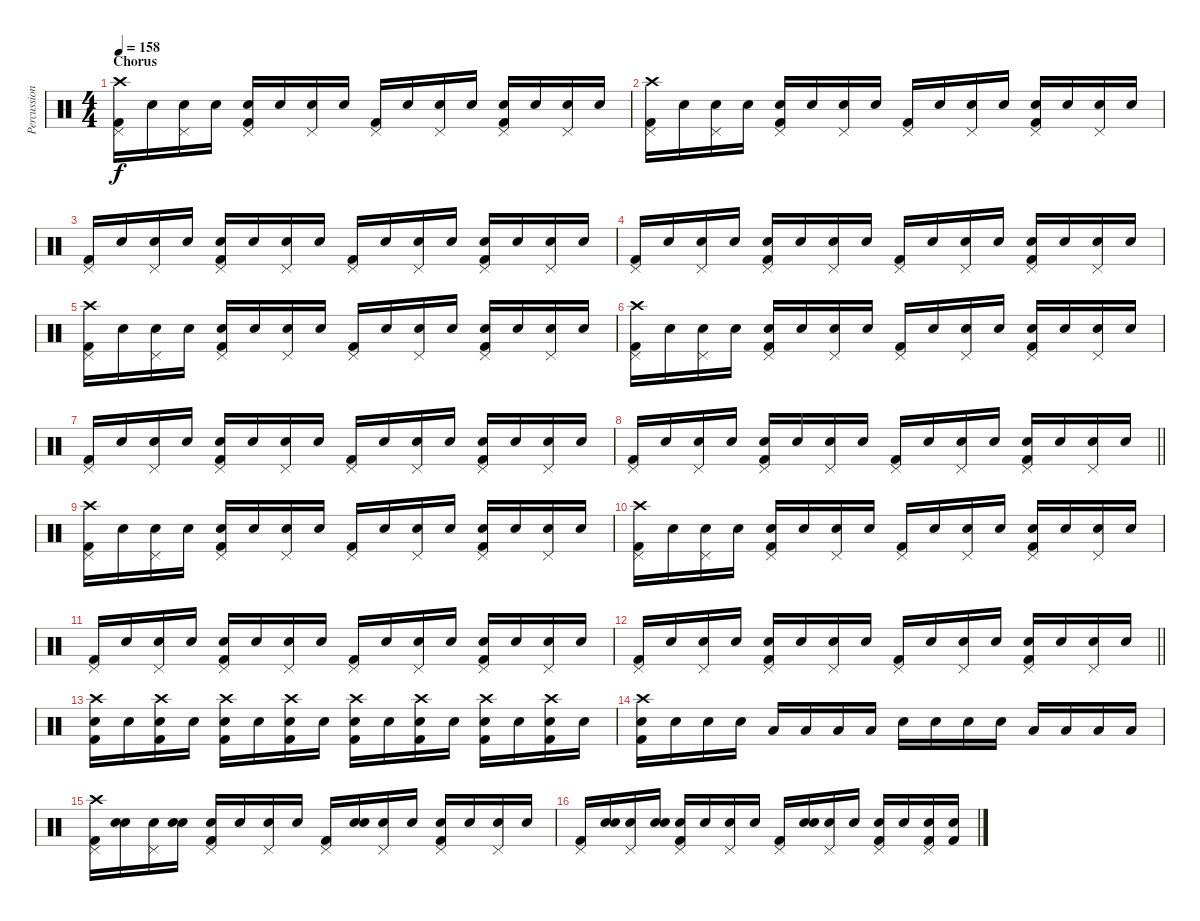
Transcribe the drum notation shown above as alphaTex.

\track ("Percussion" "Percussion") {instrument percussion}
\staff {score}
\articulation defaults
\ts (4 4)
\section ("" "Chorus")
\tempo 158
\clef neutral
\ks c
("Crash high (hit)" "Kick (hit) 2" "Pedal Hi-Hat (hit)").16{dy f} "Snare (hit)".16 ("Snare (hit)" "Pedal Hi-Hat (hit)").16 "Snare (hit)".16 ("Snare (hit) 2" "Kick (hit) 2" "Pedal Hi-Hat (hit)").16 "Snare (hit)".16 ("Snare (hit)" "Pedal Hi-Hat (hit)").16 "Snare (hit)".16 ("Kick (hit) 2" "Pedal Hi-Hat (hit)").16 "Snare (hit)".16 ("Snare (hit)" "Pedal Hi-Hat (hit)").16 "Snare (hit)".16 ("Snare (hit) 2" "Kick (hit) 2" "Pedal Hi-Hat (hit)").16 "Snare (hit)".16 ("Snare (hit)" "Pedal Hi-Hat (hit)").16 "Snare (hit)".16 |
("Crash high (hit)" "Kick (hit) 2" "Pedal Hi-Hat (hit)").16 "Snare (hit)".16 ("Snare (hit)" "Pedal Hi-Hat (hit)").16 "Snare (hit)".16 ("Snare (hit) 2" "Kick (hit) 2" "Pedal Hi-Hat (hit)").16 "Snare (hit)".16 ("Snare (hit)" "Pedal Hi-Hat (hit)").16 "Snare (hit)".16 ("Kick (hit) 2" "Pedal Hi-Hat (hit)").16 "Snare (hit)".16 ("Snare (hit)" "Pedal Hi-Hat (hit)").16 "Snare (hit)".16 ("Snare (hit) 2" "Kick (hit) 2" "Pedal Hi-Hat (hit)").16 "Snare (hit)".16 ("Snare (hit)" "Pedal Hi-Hat (hit)").16 "Snare (hit)".16 |
("Kick (hit) 2" "Pedal Hi-Hat (hit)").16 "Snare (hit)".16 ("Snare (hit)" "Pedal Hi-Hat (hit)").16 "Snare (hit)".16 ("Snare (hit) 2" "Kick (hit) 2" "Pedal Hi-Hat (hit)").16 "Snare (hit)".16 ("Snare (hit)" "Pedal Hi-Hat (hit)").16 "Snare (hit)".16 ("Kick (hit) 2" "Pedal Hi-Hat (hit)").16 "Snare (hit)".16 ("Snare (hit)" "Pedal Hi-Hat (hit)").16 "Snare (hit)".16 ("Snare (hit) 2" "Kick (hit) 2" "Pedal Hi-Hat (hit)").16 "Snare (hit)".16 ("Snare (hit)" "Pedal Hi-Hat (hit)").16 "Snare (hit)".16 |
("Kick (hit) 2" "Pedal Hi-Hat (hit)").16 "Snare (hit)".16 ("Snare (hit)" "Pedal Hi-Hat (hit)").16 "Snare (hit)".16 ("Snare (hit) 2" "Kick (hit) 2" "Pedal Hi-Hat (hit)").16 "Snare (hit)".16 ("Snare (hit)" "Pedal Hi-Hat (hit)").16 "Snare (hit)".16 ("Kick (hit) 2" "Pedal Hi-Hat (hit)").16 "Snare (hit)".16 ("Snare (hit)" "Pedal Hi-Hat (hit)").16 "Snare (hit)".16 ("Snare (hit) 2" "Kick (hit) 2" "Pedal Hi-Hat (hit)").16 "Snare (hit)".16 ("Snare (hit)" "Pedal Hi-Hat (hit)").16 "Snare (hit)".16 |
("Crash high (hit)" "Kick (hit) 2" "Pedal Hi-Hat (hit)").16 "Snare (hit)".16 ("Snare (hit)" "Pedal Hi-Hat (hit)").16 "Snare (hit)".16 ("Snare (hit) 2" "Kick (hit) 2" "Pedal Hi-Hat (hit)").16 "Snare (hit)".16 ("Snare (hit)" "Pedal Hi-Hat (hit)").16 "Snare (hit)".16 ("Kick (hit) 2" "Pedal Hi-Hat (hit)").16 "Snare (hit)".16 ("Snare (hit)" "Pedal Hi-Hat (hit)").16 "Snare (hit)".16 ("Snare (hit) 2" "Kick (hit) 2" "Pedal Hi-Hat (hit)").16 "Snare (hit)".16 ("Snare (hit)" "Pedal Hi-Hat (hit)").16 "Snare (hit)".16 |
("Crash high (hit)" "Kick (hit) 2" "Pedal Hi-Hat (hit)").16 "Snare (hit)".16 ("Snare (hit)" "Pedal Hi-Hat (hit)").16 "Snare (hit)".16 ("Snare (hit) 2" "Kick (hit) 2" "Pedal Hi-Hat (hit)").16 "Snare (hit)".16 ("Snare (hit)" "Pedal Hi-Hat (hit)").16 "Snare (hit)".16 ("Kick (hit) 2" "Pedal Hi-Hat (hit)").16 "Snare (hit)".16 ("Snare (hit)" "Pedal Hi-Hat (hit)").16 "Snare (hit)".16 ("Snare (hit) 2" "Kick (hit) 2" "Pedal Hi-Hat (hit)").16 "Snare (hit)".16 ("Snare (hit)" "Pedal Hi-Hat (hit)").16 "Snare (hit)".16 |
("Kick (hit) 2" "Pedal Hi-Hat (hit)").16 "Snare (hit)".16 ("Snare (hit)" "Pedal Hi-Hat (hit)").16 "Snare (hit)".16 ("Snare (hit) 2" "Kick (hit) 2" "Pedal Hi-Hat (hit)").16 "Snare (hit)".16 ("Snare (hit)" "Pedal Hi-Hat (hit)").16 "Snare (hit)".16 ("Kick (hit) 2" "Pedal Hi-Hat (hit)").16 "Snare (hit)".16 ("Snare (hit)" "Pedal Hi-Hat (hit)").16 "Snare (hit)".16 ("Snare (hit) 2" "Kick (hit) 2" "Pedal Hi-Hat (hit)").16 "Snare (hit)".16 ("Snare (hit)" "Pedal Hi-Hat (hit)").16 "Snare (hit)".16 |
\barLineRight lightlight
("Kick (hit) 2" "Pedal Hi-Hat (hit)").16 "Snare (hit)".16 ("Snare (hit)" "Pedal Hi-Hat (hit)").16 "Snare (hit)".16 ("Snare (hit) 2" "Kick (hit) 2" "Pedal Hi-Hat (hit)").16 "Snare (hit)".16 ("Snare (hit)" "Pedal Hi-Hat (hit)").16 "Snare (hit)".16 ("Kick (hit) 2" "Pedal Hi-Hat (hit)").16 "Snare (hit)".16 ("Snare (hit)" "Pedal Hi-Hat (hit)").16 "Snare (hit)".16 ("Snare (hit) 2" "Kick (hit) 2" "Pedal Hi-Hat (hit)").16 "Snare (hit)".16 ("Snare (hit)" "Pedal Hi-Hat (hit)").16 "Snare (hit)".16 |
("Crash high (hit)" "Kick (hit) 2" "Pedal Hi-Hat (hit)").16 "Snare (hit)".16 ("Snare (hit)" "Pedal Hi-Hat (hit)").16 "Snare (hit)".16 ("Snare (hit) 2" "Kick (hit) 2" "Pedal Hi-Hat (hit)").16 "Snare (hit)".16 ("Snare (hit)" "Pedal Hi-Hat (hit)").16 "Snare (hit)".16 ("Kick (hit) 2" "Pedal Hi-Hat (hit)").16 "Snare (hit)".16 ("Snare (hit)" "Pedal Hi-Hat (hit)").16 "Snare (hit)".16 ("Snare (hit) 2" "Kick (hit) 2" "Pedal Hi-Hat (hit)").16 "Snare (hit)".16 ("Snare (hit)" "Pedal Hi-Hat (hit)").16 "Snare (hit)".16 |
("Crash high (hit)" "Kick (hit) 2" "Pedal Hi-Hat (hit)").16 "Snare (hit)".16 ("Snare (hit)" "Pedal Hi-Hat (hit)").16 "Snare (hit)".16 ("Snare (hit) 2" "Kick (hit) 2" "Pedal Hi-Hat (hit)").16 "Snare (hit)".16 ("Snare (hit)" "Pedal Hi-Hat (hit)").16 "Snare (hit)".16 ("Kick (hit) 2" "Pedal Hi-Hat (hit)").16 "Snare (hit)".16 ("Snare (hit)" "Pedal Hi-Hat (hit)").16 "Snare (hit)".16 ("Snare (hit) 2" "Kick (hit) 2" "Pedal Hi-Hat (hit)").16 "Snare (hit)".16 ("Snare (hit)" "Pedal Hi-Hat (hit)").16 "Snare (hit)".16 |
("Kick (hit) 2" "Pedal Hi-Hat (hit)").16 "Snare (hit)".16 ("Snare (hit)" "Pedal Hi-Hat (hit)").16 "Snare (hit)".16 ("Snare (hit) 2" "Kick (hit) 2" "Pedal Hi-Hat (hit)").16 "Snare (hit)".16 ("Snare (hit)" "Pedal Hi-Hat (hit)").16 "Snare (hit)".16 ("Kick (hit) 2" "Pedal Hi-Hat (hit)").16 "Snare (hit)".16 ("Snare (hit)" "Pedal Hi-Hat (hit)").16 "Snare (hit)".16 ("Snare (hit) 2" "Kick (hit) 2" "Pedal Hi-Hat (hit)").16 "Snare (hit)".16 ("Snare (hit)" "Pedal Hi-Hat (hit)").16 "Snare (hit)".16 |
\barLineRight lightlight
("Kick (hit) 2" "Pedal Hi-Hat (hit)").16 "Snare (hit)".16 ("Snare (hit)" "Pedal Hi-Hat (hit)").16 "Snare (hit)".16 ("Snare (hit) 2" "Kick (hit) 2" "Pedal Hi-Hat (hit)").16 "Snare (hit)".16 ("Snare (hit)" "Pedal Hi-Hat (hit)").16 "Snare (hit)".16 ("Kick (hit) 2" "Pedal Hi-Hat (hit)").16 "Snare (hit)".16 ("Snare (hit)" "Pedal Hi-Hat (hit)").16 "Snare (hit)".16 ("Snare (hit) 2" "Kick (hit) 2" "Pedal Hi-Hat (hit)").16 "Snare (hit)".16 ("Snare (hit)" "Pedal Hi-Hat (hit)").16 "Snare (hit)".16 |
("Crash high (hit)" "Snare (hit) 2" "Kick (hit) 2").16 "Snare (hit)".16 ("Crash high (hit)" "Snare (hit) 2" "Kick (hit) 2").16 "Snare (hit)".16 ("Crash high (hit)" "Snare (hit) 2" "Kick (hit) 2").16 "Snare (hit)".16 ("Crash high (hit)" "Snare (hit) 2" "Kick (hit) 2").16 "Snare (hit)".16 ("Crash high (hit)" "Snare (hit) 2" "Kick (hit) 2").16 "Snare (hit)".16 ("Crash high (hit)" "Snare (hit) 2" "Kick (hit) 2").16 "Snare (hit)".16 ("Crash high (hit)" "Snare (hit) 2" "Kick (hit) 2").16 "Snare (hit)".16 ("Crash high (hit)" "Snare (hit) 2" "Kick (hit) 2").16 "Snare (hit) 2".16 |
("Crash high (hit)" "Snare (hit) 2" "Kick (hit) 2").16 "Snare (hit) 2".16 "Snare (hit) 2".16 "Snare (hit) 2".16 "Low Tom (hit)".16 "Low Tom (hit)".16 "Low Tom (hit)".16 "Low Tom (hit)".16 "Snare (hit) 2".16 "Snare (hit) 2".16 "Snare (hit) 2".16 "Snare (hit) 2".16 "Low Tom (hit)".16 "Low Tom (hit)".16 "Low Tom (hit)".16 "Low Tom (hit)".16 |
("Kick (hit) 2" "Crash high (hit)" "Pedal Hi-Hat (hit)").16 ("Snare (hit)" "Snare (hit)").16 ("Snare (hit)" "Pedal Hi-Hat (hit)").16 ("Snare (hit)" "Snare (hit)").16 ("Kick (hit) 2" "Electric Snare (hit)" "Pedal Hi-Hat (hit)").16 "Snare (hit)".16 ("Snare (hit)" "Pedal Hi-Hat (hit)").16 "Snare (hit)".16 ("Kick (hit) 2" "Pedal Hi-Hat (hit)").16 ("Snare (hit)" "Snare (hit)").16 ("Snare (hit)" "Pedal Hi-Hat (hit)").16 "Snare (hit)".16 ("Kick (hit) 2" "Electric Snare (hit)" "Pedal Hi-Hat (hit)").16 "Snare (hit)".16 ("Snare (hit)" "Pedal Hi-Hat (hit)").16 "Snare (hit)".16 |
("Kick (hit) 2" "Pedal Hi-Hat (hit)").16 ("Snare (hit)" "Snare (hit)").16 ("Snare (hit)" "Pedal Hi-Hat (hit)").16 ("Snare (hit)" "Snare (hit)").16 ("Kick (hit) 2" "Electric Snare (hit)" "Pedal Hi-Hat (hit)").16 "Snare (hit)".16 ("Snare (hit)" "Pedal Hi-Hat (hit)").16 "Snare (hit)".16 ("Kick (hit) 2" "Pedal Hi-Hat (hit)").16 ("Snare (hit)" "Snare (hit)").16 ("Snare (hit)" "Pedal Hi-Hat (hit)").16 "Snare (hit)".16 ("Kick (hit) 2" "Electric Snare (hit)" "Pedal Hi-Hat (hit)").16 "Snare (hit)".16 ("Kick (hit) 2" "Snare (hit) 2" "Pedal Hi-Hat (hit)").16 ("Kick (hit) 2" "Snare (hit) 2").16
